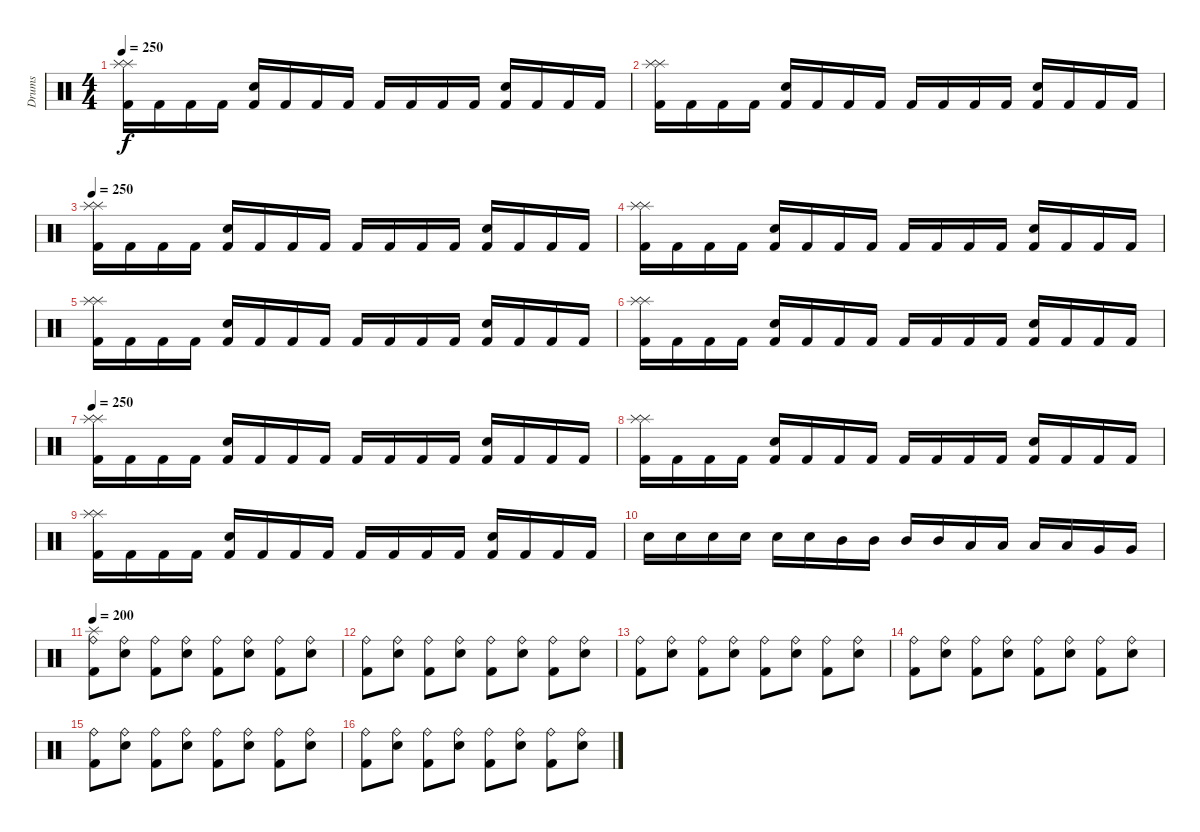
\track ("Drums" "Drums") {instrument percussion}
\staff {score}
\articulation defaults
\ts (4 4)
\tempo 250
\clef neutral
\ks c
("Kick (hit) 2" "Splash (hit)" "Splash (hit)").16{dy f} "Kick (hit) 2".16 "Kick (hit) 2".16 "Kick (hit) 2".16 ("Kick (hit) 2" "Electric Snare (hit)").16 "Kick (hit) 2".16 "Kick (hit) 2".16 "Kick (hit) 2".16 "Kick (hit) 2".16 "Kick (hit) 2".16 "Kick (hit) 2".16 "Kick (hit) 2".16 ("Kick (hit) 2" "Electric Snare (hit)").16 "Kick (hit) 2".16 "Kick (hit) 2".16 "Kick (hit) 2".16 |
("Kick (hit) 2" "Splash (hit)" "Splash (hit)").16 "Kick (hit) 2".16 "Kick (hit) 2".16 "Kick (hit) 2".16 ("Kick (hit) 2" "Electric Snare (hit)").16 "Kick (hit) 2".16 "Kick (hit) 2".16 "Kick (hit) 2".16 "Kick (hit) 2".16 "Kick (hit) 2".16 "Kick (hit) 2".16 "Kick (hit) 2".16 ("Kick (hit) 2" "Electric Snare (hit)").16 "Kick (hit) 2".16 "Kick (hit) 2".16 "Kick (hit) 2".16 |
\tempo 250
("Kick (hit) 2" "Splash (hit)" "Splash (hit)").16 "Kick (hit) 2".16 "Kick (hit) 2".16 "Kick (hit) 2".16 ("Kick (hit) 2" "Electric Snare (hit)").16 "Kick (hit) 2".16 "Kick (hit) 2".16 "Kick (hit) 2".16 "Kick (hit) 2".16 "Kick (hit) 2".16 "Kick (hit) 2".16 "Kick (hit) 2".16 ("Kick (hit) 2" "Electric Snare (hit)").16 "Kick (hit) 2".16 "Kick (hit) 2".16 "Kick (hit) 2".16 |
("Kick (hit) 2" "Splash (hit)" "Splash (hit)").16 "Kick (hit) 2".16 "Kick (hit) 2".16 "Kick (hit) 2".16 ("Kick (hit) 2" "Electric Snare (hit)").16 "Kick (hit) 2".16 "Kick (hit) 2".16 "Kick (hit) 2".16 "Kick (hit) 2".16 "Kick (hit) 2".16 "Kick (hit) 2".16 "Kick (hit) 2".16 ("Kick (hit) 2" "Electric Snare (hit)").16 "Kick (hit) 2".16 "Kick (hit) 2".16 "Kick (hit) 2".16 |
("Kick (hit) 2" "Splash (hit)" "Splash (hit)").16 "Kick (hit) 2".16 "Kick (hit) 2".16 "Kick (hit) 2".16 ("Kick (hit) 2" "Electric Snare (hit)").16 "Kick (hit) 2".16 "Kick (hit) 2".16 "Kick (hit) 2".16 "Kick (hit) 2".16 "Kick (hit) 2".16 "Kick (hit) 2".16 "Kick (hit) 2".16 ("Kick (hit) 2" "Electric Snare (hit)").16 "Kick (hit) 2".16 "Kick (hit) 2".16 "Kick (hit) 2".16 |
("Kick (hit) 2" "Splash (hit)" "Splash (hit)").16 "Kick (hit) 2".16 "Kick (hit) 2".16 "Kick (hit) 2".16 ("Kick (hit) 2" "Electric Snare (hit)").16 "Kick (hit) 2".16 "Kick (hit) 2".16 "Kick (hit) 2".16 "Kick (hit) 2".16 "Kick (hit) 2".16 "Kick (hit) 2".16 "Kick (hit) 2".16 ("Kick (hit) 2" "Electric Snare (hit)").16 "Kick (hit) 2".16 "Kick (hit) 2".16 "Kick (hit) 2".16 |
\tempo 250
("Kick (hit) 2" "Splash (hit)" "Splash (hit)").16 "Kick (hit) 2".16 "Kick (hit) 2".16 "Kick (hit) 2".16 ("Kick (hit) 2" "Electric Snare (hit)").16 "Kick (hit) 2".16 "Kick (hit) 2".16 "Kick (hit) 2".16 "Kick (hit) 2".16 "Kick (hit) 2".16 "Kick (hit) 2".16 "Kick (hit) 2".16 ("Kick (hit) 2" "Electric Snare (hit)").16 "Kick (hit) 2".16 "Kick (hit) 2".16 "Kick (hit) 2".16 |
("Kick (hit) 2" "Splash (hit)" "Splash (hit)").16 "Kick (hit) 2".16 "Kick (hit) 2".16 "Kick (hit) 2".16 ("Kick (hit) 2" "Electric Snare (hit)").16 "Kick (hit) 2".16 "Kick (hit) 2".16 "Kick (hit) 2".16 "Kick (hit) 2".16 "Kick (hit) 2".16 "Kick (hit) 2".16 "Kick (hit) 2".16 ("Kick (hit) 2" "Electric Snare (hit)").16 "Kick (hit) 2".16 "Kick (hit) 2".16 "Kick (hit) 2".16 |
("Kick (hit) 2" "Splash (hit)" "Splash (hit)").16 "Kick (hit) 2".16 "Kick (hit) 2".16 "Kick (hit) 2".16 ("Kick (hit) 2" "Electric Snare (hit)").16 "Kick (hit) 2".16 "Kick (hit) 2".16 "Kick (hit) 2".16 "Kick (hit) 2".16 "Kick (hit) 2".16 "Kick (hit) 2".16 "Kick (hit) 2".16 ("Kick (hit) 2" "Electric Snare (hit)").16 "Kick (hit) 2".16 "Kick (hit) 2".16 "Kick (hit) 2".16 |
"Electric Snare (hit)".16 "Electric Snare (hit)".16 "Electric Snare (hit)".16 "Electric Snare (hit)".16 "Electric Snare (hit)".16 "Electric Snare (hit)".16 "Mid Tom (hit)".16 "Mid Tom (hit)".16 "Mid Tom (hit)".16 "Mid Tom (hit)".16 "Low Tom (hit)".16 "Low Tom (hit)".16 "Low Tom (hit)".16 "Low Tom (hit)".16 "Very Low Tom (hit)".16 "Very Low Tom (hit)".16 |
\tempo 200
("Ride (bell)" "Splash (hit)" "Kick (hit) 2").8 ("Ride (bell)" "Electric Snare (hit)").8 ("Ride (bell)" "Kick (hit) 2").8 ("Ride (bell)" "Electric Snare (hit)").8 ("Ride (bell)" "Kick (hit) 2").8 ("Ride (bell)" "Electric Snare (hit)").8 ("Ride (bell)" "Kick (hit) 2").8 ("Ride (bell)" "Electric Snare (hit)").8 |
("Ride (bell)" "Kick (hit) 2").8 ("Ride (bell)" "Electric Snare (hit)").8 ("Ride (bell)" "Kick (hit) 2").8 ("Ride (bell)" "Electric Snare (hit)").8 ("Ride (bell)" "Kick (hit) 2").8 ("Ride (bell)" "Electric Snare (hit)").8 ("Ride (bell)" "Kick (hit) 2").8 ("Ride (bell)" "Electric Snare (hit)").8 |
("Ride (bell)" "Kick (hit) 2").8 ("Ride (bell)" "Electric Snare (hit)").8 ("Ride (bell)" "Kick (hit) 2").8 ("Ride (bell)" "Electric Snare (hit)").8 ("Ride (bell)" "Kick (hit) 2").8 ("Ride (bell)" "Electric Snare (hit)").8 ("Ride (bell)" "Kick (hit) 2").8 ("Ride (bell)" "Electric Snare (hit)").8 |
("Ride (bell)" "Kick (hit) 2").8 ("Ride (bell)" "Electric Snare (hit)").8 ("Ride (bell)" "Kick (hit) 2").8 ("Ride (bell)" "Electric Snare (hit)").8 ("Ride (bell)" "Kick (hit) 2").8 ("Ride (bell)" "Electric Snare (hit)").8 ("Ride (bell)" "Kick (hit) 2").8 ("Ride (bell)" "Electric Snare (hit)").8 |
("Ride (bell)" "Kick (hit) 2").8 ("Ride (bell)" "Electric Snare (hit)").8 ("Ride (bell)" "Kick (hit) 2").8 ("Ride (bell)" "Electric Snare (hit)").8 ("Ride (bell)" "Kick (hit) 2").8 ("Ride (bell)" "Electric Snare (hit)").8 ("Ride (bell)" "Kick (hit) 2").8 ("Ride (bell)" "Electric Snare (hit)").8 |
("Ride (bell)" "Kick (hit) 2").8 ("Ride (bell)" "Electric Snare (hit)").8 ("Ride (bell)" "Kick (hit) 2").8 ("Ride (bell)" "Electric Snare (hit)").8 ("Ride (bell)" "Kick (hit) 2").8 ("Ride (bell)" "Electric Snare (hit)").8 ("Ride (bell)" "Kick (hit) 2").8 ("Ride (bell)" "Electric Snare (hit)").8
